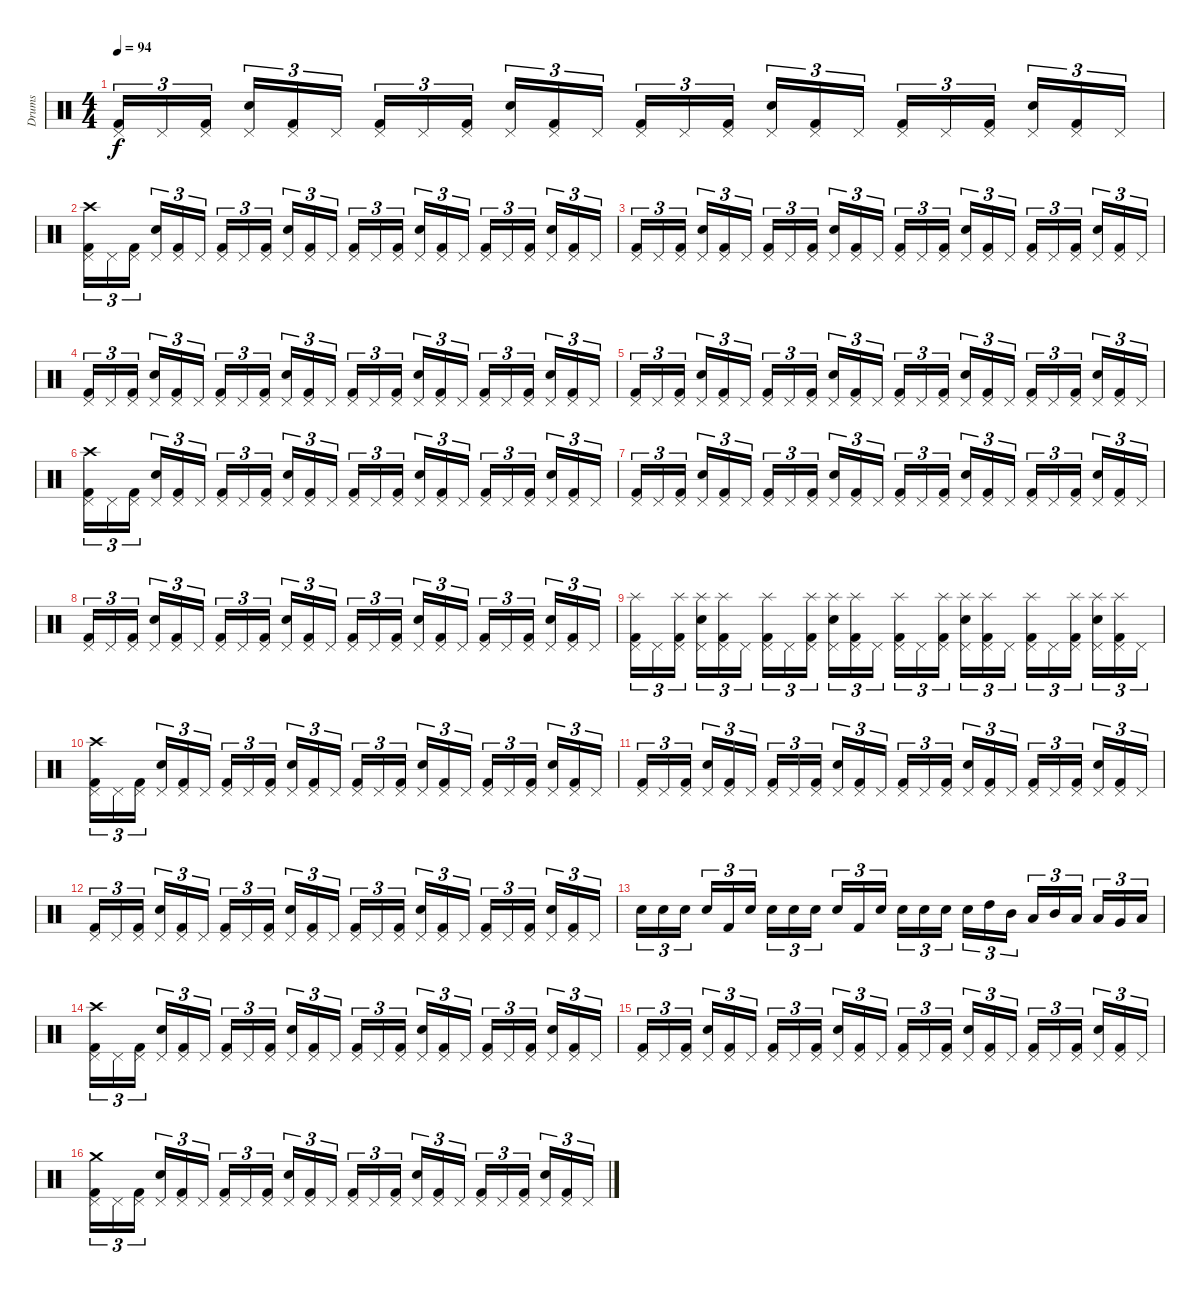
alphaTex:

\track ("Drums" "Drums") {instrument percussion}
\staff {score}
\articulation defaults
\ts (4 4)
\tempo 94
\clef neutral
\ks c
("Kick (hit) 2" "Pedal Hi-Hat (hit)").16{tu (3 2) dy f} "Pedal Hi-Hat (hit)".16{tu (3 2)} ("Kick (hit) 2" "Pedal Hi-Hat (hit)").16{tu (3 2)} ("Snare (hit) 2" "Pedal Hi-Hat (hit)").16{tu (3 2)} ("Kick (hit) 2" "Pedal Hi-Hat (hit)").16{tu (3 2)} "Pedal Hi-Hat (hit)".16{tu (3 2)} ("Kick (hit) 2" "Pedal Hi-Hat (hit)").16{tu (3 2)} "Pedal Hi-Hat (hit)".16{tu (3 2)} ("Kick (hit) 2" "Pedal Hi-Hat (hit)").16{tu (3 2)} ("Snare (hit) 2" "Pedal Hi-Hat (hit)").16{tu (3 2)} ("Kick (hit) 2" "Pedal Hi-Hat (hit)").16{tu (3 2)} "Pedal Hi-Hat (hit)".16{tu (3 2)} ("Kick (hit) 2" "Pedal Hi-Hat (hit)").16{tu (3 2)} "Pedal Hi-Hat (hit)".16{tu (3 2)} ("Kick (hit) 2" "Pedal Hi-Hat (hit)").16{tu (3 2)} ("Snare (hit) 2" "Pedal Hi-Hat (hit)").16{tu (3 2)} ("Kick (hit) 2" "Pedal Hi-Hat (hit)").16{tu (3 2)} "Pedal Hi-Hat (hit)".16{tu (3 2)} ("Kick (hit) 2" "Pedal Hi-Hat (hit)").16{tu (3 2)} "Pedal Hi-Hat (hit)".16{tu (3 2)} ("Kick (hit) 2" "Pedal Hi-Hat (hit)").16{tu (3 2)} ("Snare (hit) 2" "Pedal Hi-Hat (hit)").16{tu (3 2)} ("Kick (hit) 2" "Pedal Hi-Hat (hit)").16{tu (3 2)} "Pedal Hi-Hat (hit)".16{tu (3 2)} |
("Kick (hit) 2" "Pedal Hi-Hat (hit)" "Crash high (hit)").16{tu (3 2)} "Pedal Hi-Hat (hit)".16{tu (3 2)} ("Kick (hit) 2" "Pedal Hi-Hat (hit)").16{tu (3 2)} ("Snare (hit) 2" "Pedal Hi-Hat (hit)").16{tu (3 2)} ("Kick (hit) 2" "Pedal Hi-Hat (hit)").16{tu (3 2)} "Pedal Hi-Hat (hit)".16{tu (3 2)} ("Kick (hit) 2" "Pedal Hi-Hat (hit)").16{tu (3 2)} "Pedal Hi-Hat (hit)".16{tu (3 2)} ("Kick (hit) 2" "Pedal Hi-Hat (hit)").16{tu (3 2)} ("Snare (hit) 2" "Pedal Hi-Hat (hit)").16{tu (3 2)} ("Kick (hit) 2" "Pedal Hi-Hat (hit)").16{tu (3 2)} "Pedal Hi-Hat (hit)".16{tu (3 2)} ("Kick (hit) 2" "Pedal Hi-Hat (hit)").16{tu (3 2)} "Pedal Hi-Hat (hit)".16{tu (3 2)} ("Kick (hit) 2" "Pedal Hi-Hat (hit)").16{tu (3 2)} ("Snare (hit) 2" "Pedal Hi-Hat (hit)").16{tu (3 2)} ("Kick (hit) 2" "Pedal Hi-Hat (hit)").16{tu (3 2)} "Pedal Hi-Hat (hit)".16{tu (3 2)} ("Kick (hit) 2" "Pedal Hi-Hat (hit)").16{tu (3 2)} "Pedal Hi-Hat (hit)".16{tu (3 2)} ("Kick (hit) 2" "Pedal Hi-Hat (hit)").16{tu (3 2)} ("Snare (hit) 2" "Pedal Hi-Hat (hit)").16{tu (3 2)} ("Kick (hit) 2" "Pedal Hi-Hat (hit)").16{tu (3 2)} "Pedal Hi-Hat (hit)".16{tu (3 2)} |
("Kick (hit) 2" "Pedal Hi-Hat (hit)").16{tu (3 2)} "Pedal Hi-Hat (hit)".16{tu (3 2)} ("Kick (hit) 2" "Pedal Hi-Hat (hit)").16{tu (3 2)} ("Snare (hit) 2" "Pedal Hi-Hat (hit)").16{tu (3 2)} ("Kick (hit) 2" "Pedal Hi-Hat (hit)").16{tu (3 2)} "Pedal Hi-Hat (hit)".16{tu (3 2)} ("Kick (hit) 2" "Pedal Hi-Hat (hit)").16{tu (3 2)} "Pedal Hi-Hat (hit)".16{tu (3 2)} ("Kick (hit) 2" "Pedal Hi-Hat (hit)").16{tu (3 2)} ("Snare (hit) 2" "Pedal Hi-Hat (hit)").16{tu (3 2)} ("Kick (hit) 2" "Pedal Hi-Hat (hit)").16{tu (3 2)} "Pedal Hi-Hat (hit)".16{tu (3 2)} ("Kick (hit) 2" "Pedal Hi-Hat (hit)").16{tu (3 2)} "Pedal Hi-Hat (hit)".16{tu (3 2)} ("Kick (hit) 2" "Pedal Hi-Hat (hit)").16{tu (3 2)} ("Snare (hit) 2" "Pedal Hi-Hat (hit)").16{tu (3 2)} ("Kick (hit) 2" "Pedal Hi-Hat (hit)").16{tu (3 2)} "Pedal Hi-Hat (hit)".16{tu (3 2)} ("Kick (hit) 2" "Pedal Hi-Hat (hit)").16{tu (3 2)} "Pedal Hi-Hat (hit)".16{tu (3 2)} ("Kick (hit) 2" "Pedal Hi-Hat (hit)").16{tu (3 2)} ("Snare (hit) 2" "Pedal Hi-Hat (hit)").16{tu (3 2)} ("Kick (hit) 2" "Pedal Hi-Hat (hit)").16{tu (3 2)} "Pedal Hi-Hat (hit)".16{tu (3 2)} |
("Kick (hit) 2" "Pedal Hi-Hat (hit)").16{tu (3 2)} "Pedal Hi-Hat (hit)".16{tu (3 2)} ("Kick (hit) 2" "Pedal Hi-Hat (hit)").16{tu (3 2)} ("Snare (hit) 2" "Pedal Hi-Hat (hit)").16{tu (3 2)} ("Kick (hit) 2" "Pedal Hi-Hat (hit)").16{tu (3 2)} "Pedal Hi-Hat (hit)".16{tu (3 2)} ("Kick (hit) 2" "Pedal Hi-Hat (hit)").16{tu (3 2)} "Pedal Hi-Hat (hit)".16{tu (3 2)} ("Kick (hit) 2" "Pedal Hi-Hat (hit)").16{tu (3 2)} ("Snare (hit) 2" "Pedal Hi-Hat (hit)").16{tu (3 2)} ("Kick (hit) 2" "Pedal Hi-Hat (hit)").16{tu (3 2)} "Pedal Hi-Hat (hit)".16{tu (3 2)} ("Kick (hit) 2" "Pedal Hi-Hat (hit)").16{tu (3 2)} "Pedal Hi-Hat (hit)".16{tu (3 2)} ("Kick (hit) 2" "Pedal Hi-Hat (hit)").16{tu (3 2)} ("Snare (hit) 2" "Pedal Hi-Hat (hit)").16{tu (3 2)} ("Kick (hit) 2" "Pedal Hi-Hat (hit)").16{tu (3 2)} "Pedal Hi-Hat (hit)".16{tu (3 2)} ("Kick (hit) 2" "Pedal Hi-Hat (hit)").16{tu (3 2)} "Pedal Hi-Hat (hit)".16{tu (3 2)} ("Kick (hit) 2" "Pedal Hi-Hat (hit)").16{tu (3 2)} ("Snare (hit) 2" "Pedal Hi-Hat (hit)").16{tu (3 2)} ("Kick (hit) 2" "Pedal Hi-Hat (hit)").16{tu (3 2)} "Pedal Hi-Hat (hit)".16{tu (3 2)} |
("Kick (hit) 2" "Pedal Hi-Hat (hit)").16{tu (3 2)} "Pedal Hi-Hat (hit)".16{tu (3 2)} ("Kick (hit) 2" "Pedal Hi-Hat (hit)").16{tu (3 2)} ("Snare (hit) 2" "Pedal Hi-Hat (hit)").16{tu (3 2)} ("Kick (hit) 2" "Pedal Hi-Hat (hit)").16{tu (3 2)} "Pedal Hi-Hat (hit)".16{tu (3 2)} ("Kick (hit) 2" "Pedal Hi-Hat (hit)").16{tu (3 2)} "Pedal Hi-Hat (hit)".16{tu (3 2)} ("Kick (hit) 2" "Pedal Hi-Hat (hit)").16{tu (3 2)} ("Snare (hit) 2" "Pedal Hi-Hat (hit)").16{tu (3 2)} ("Kick (hit) 2" "Pedal Hi-Hat (hit)").16{tu (3 2)} "Pedal Hi-Hat (hit)".16{tu (3 2)} ("Kick (hit) 2" "Pedal Hi-Hat (hit)").16{tu (3 2)} "Pedal Hi-Hat (hit)".16{tu (3 2)} ("Kick (hit) 2" "Pedal Hi-Hat (hit)").16{tu (3 2)} ("Snare (hit) 2" "Pedal Hi-Hat (hit)").16{tu (3 2)} ("Kick (hit) 2" "Pedal Hi-Hat (hit)").16{tu (3 2)} "Pedal Hi-Hat (hit)".16{tu (3 2)} ("Kick (hit) 2" "Pedal Hi-Hat (hit)").16{tu (3 2)} "Pedal Hi-Hat (hit)".16{tu (3 2)} ("Kick (hit) 2" "Pedal Hi-Hat (hit)").16{tu (3 2)} ("Snare (hit) 2" "Pedal Hi-Hat (hit)").16{tu (3 2)} ("Kick (hit) 2" "Pedal Hi-Hat (hit)").16{tu (3 2)} "Pedal Hi-Hat (hit)".16{tu (3 2)} |
("Kick (hit) 2" "Pedal Hi-Hat (hit)" "Crash high (hit)").16{tu (3 2)} "Pedal Hi-Hat (hit)".16{tu (3 2)} ("Kick (hit) 2" "Pedal Hi-Hat (hit)").16{tu (3 2)} ("Snare (hit) 2" "Pedal Hi-Hat (hit)").16{tu (3 2)} ("Kick (hit) 2" "Pedal Hi-Hat (hit)").16{tu (3 2)} "Pedal Hi-Hat (hit)".16{tu (3 2)} ("Kick (hit) 2" "Pedal Hi-Hat (hit)").16{tu (3 2)} "Pedal Hi-Hat (hit)".16{tu (3 2)} ("Kick (hit) 2" "Pedal Hi-Hat (hit)").16{tu (3 2)} ("Snare (hit) 2" "Pedal Hi-Hat (hit)").16{tu (3 2)} ("Kick (hit) 2" "Pedal Hi-Hat (hit)").16{tu (3 2)} "Pedal Hi-Hat (hit)".16{tu (3 2)} ("Kick (hit) 2" "Pedal Hi-Hat (hit)").16{tu (3 2)} "Pedal Hi-Hat (hit)".16{tu (3 2)} ("Kick (hit) 2" "Pedal Hi-Hat (hit)").16{tu (3 2)} ("Snare (hit) 2" "Pedal Hi-Hat (hit)").16{tu (3 2)} ("Kick (hit) 2" "Pedal Hi-Hat (hit)").16{tu (3 2)} "Pedal Hi-Hat (hit)".16{tu (3 2)} ("Kick (hit) 2" "Pedal Hi-Hat (hit)").16{tu (3 2)} "Pedal Hi-Hat (hit)".16{tu (3 2)} ("Kick (hit) 2" "Pedal Hi-Hat (hit)").16{tu (3 2)} ("Snare (hit) 2" "Pedal Hi-Hat (hit)").16{tu (3 2)} ("Kick (hit) 2" "Pedal Hi-Hat (hit)").16{tu (3 2)} "Pedal Hi-Hat (hit)".16{tu (3 2)} |
("Kick (hit) 2" "Pedal Hi-Hat (hit)").16{tu (3 2)} "Pedal Hi-Hat (hit)".16{tu (3 2)} ("Kick (hit) 2" "Pedal Hi-Hat (hit)").16{tu (3 2)} ("Snare (hit) 2" "Pedal Hi-Hat (hit)").16{tu (3 2)} ("Kick (hit) 2" "Pedal Hi-Hat (hit)").16{tu (3 2)} "Pedal Hi-Hat (hit)".16{tu (3 2)} ("Kick (hit) 2" "Pedal Hi-Hat (hit)").16{tu (3 2)} "Pedal Hi-Hat (hit)".16{tu (3 2)} ("Kick (hit) 2" "Pedal Hi-Hat (hit)").16{tu (3 2)} ("Snare (hit) 2" "Pedal Hi-Hat (hit)").16{tu (3 2)} ("Kick (hit) 2" "Pedal Hi-Hat (hit)").16{tu (3 2)} "Pedal Hi-Hat (hit)".16{tu (3 2)} ("Kick (hit) 2" "Pedal Hi-Hat (hit)").16{tu (3 2)} "Pedal Hi-Hat (hit)".16{tu (3 2)} ("Kick (hit) 2" "Pedal Hi-Hat (hit)").16{tu (3 2)} ("Snare (hit) 2" "Pedal Hi-Hat (hit)").16{tu (3 2)} ("Kick (hit) 2" "Pedal Hi-Hat (hit)").16{tu (3 2)} "Pedal Hi-Hat (hit)".16{tu (3 2)} ("Kick (hit) 2" "Pedal Hi-Hat (hit)").16{tu (3 2)} "Pedal Hi-Hat (hit)".16{tu (3 2)} ("Kick (hit) 2" "Pedal Hi-Hat (hit)").16{tu (3 2)} ("Snare (hit) 2" "Pedal Hi-Hat (hit)").16{tu (3 2)} ("Kick (hit) 2" "Pedal Hi-Hat (hit)").16{tu (3 2)} "Pedal Hi-Hat (hit)".16{tu (3 2)} |
("Kick (hit) 2" "Pedal Hi-Hat (hit)").16{tu (3 2)} "Pedal Hi-Hat (hit)".16{tu (3 2)} ("Kick (hit) 2" "Pedal Hi-Hat (hit)").16{tu (3 2)} ("Snare (hit) 2" "Pedal Hi-Hat (hit)").16{tu (3 2)} ("Kick (hit) 2" "Pedal Hi-Hat (hit)").16{tu (3 2)} "Pedal Hi-Hat (hit)".16{tu (3 2)} ("Kick (hit) 2" "Pedal Hi-Hat (hit)").16{tu (3 2)} "Pedal Hi-Hat (hit)".16{tu (3 2)} ("Kick (hit) 2" "Pedal Hi-Hat (hit)").16{tu (3 2)} ("Snare (hit) 2" "Pedal Hi-Hat (hit)").16{tu (3 2)} ("Kick (hit) 2" "Pedal Hi-Hat (hit)").16{tu (3 2)} "Pedal Hi-Hat (hit)".16{tu (3 2)} ("Kick (hit) 2" "Pedal Hi-Hat (hit)").16{tu (3 2)} "Pedal Hi-Hat (hit)".16{tu (3 2)} ("Kick (hit) 2" "Pedal Hi-Hat (hit)").16{tu (3 2)} ("Snare (hit) 2" "Pedal Hi-Hat (hit)").16{tu (3 2)} ("Kick (hit) 2" "Pedal Hi-Hat (hit)").16{tu (3 2)} "Pedal Hi-Hat (hit)".16{tu (3 2)} ("Kick (hit) 2" "Pedal Hi-Hat (hit)").16{tu (3 2)} "Pedal Hi-Hat (hit)".16{tu (3 2)} ("Kick (hit) 2" "Pedal Hi-Hat (hit)").16{tu (3 2)} ("Snare (hit) 2" "Pedal Hi-Hat (hit)").16{tu (3 2)} ("Kick (hit) 2" "Pedal Hi-Hat (hit)").16{tu (3 2)} "Pedal Hi-Hat (hit)".16{tu (3 2)} |
("Kick (hit) 2" "Pedal Hi-Hat (hit)" "Splash (hit)").16{tu (3 2)} "Pedal Hi-Hat (hit)".16{tu (3 2)} ("Kick (hit) 2" "Pedal Hi-Hat (hit)" "Splash (hit)").16{tu (3 2)} ("Snare (hit) 2" "Pedal Hi-Hat (hit)" "Splash (hit)").16{tu (3 2)} ("Kick (hit) 2" "Pedal Hi-Hat (hit)" "Splash (hit)").16{tu (3 2)} "Pedal Hi-Hat (hit)".16{tu (3 2)} ("Kick (hit) 2" "Pedal Hi-Hat (hit)" "Splash (hit)").16{tu (3 2)} "Pedal Hi-Hat (hit)".16{tu (3 2)} ("Kick (hit) 2" "Pedal Hi-Hat (hit)" "Splash (hit)").16{tu (3 2)} ("Snare (hit) 2" "Pedal Hi-Hat (hit)" "Splash (hit)").16{tu (3 2)} ("Kick (hit) 2" "Pedal Hi-Hat (hit)" "Splash (hit)").16{tu (3 2)} "Pedal Hi-Hat (hit)".16{tu (3 2)} ("Kick (hit) 2" "Pedal Hi-Hat (hit)" "Splash (hit)").16{tu (3 2)} "Pedal Hi-Hat (hit)".16{tu (3 2)} ("Kick (hit) 2" "Pedal Hi-Hat (hit)" "Splash (hit)").16{tu (3 2)} ("Snare (hit) 2" "Pedal Hi-Hat (hit)" "Splash (hit)").16{tu (3 2)} ("Kick (hit) 2" "Pedal Hi-Hat (hit)" "Splash (hit)").16{tu (3 2)} "Pedal Hi-Hat (hit)".16{tu (3 2)} ("Kick (hit) 2" "Pedal Hi-Hat (hit)" "Splash (hit)").16{tu (3 2)} "Pedal Hi-Hat (hit)".16{tu (3 2)} ("Kick (hit) 2" "Pedal Hi-Hat (hit)" "Splash (hit)").16{tu (3 2)} ("Snare (hit) 2" "Pedal Hi-Hat (hit)" "Splash (hit)").16{tu (3 2)} ("Kick (hit) 2" "Pedal Hi-Hat (hit)" "Splash (hit)").16{tu (3 2)} "Pedal Hi-Hat (hit)".16{tu (3 2)} |
("Kick (hit) 2" "Pedal Hi-Hat (hit)" "Crash high (hit)").16{tu (3 2)} "Pedal Hi-Hat (hit)".16{tu (3 2)} ("Kick (hit) 2" "Pedal Hi-Hat (hit)").16{tu (3 2)} ("Snare (hit) 2" "Pedal Hi-Hat (hit)").16{tu (3 2)} ("Kick (hit) 2" "Pedal Hi-Hat (hit)").16{tu (3 2)} "Pedal Hi-Hat (hit)".16{tu (3 2)} ("Kick (hit) 2" "Pedal Hi-Hat (hit)").16{tu (3 2)} "Pedal Hi-Hat (hit)".16{tu (3 2)} ("Kick (hit) 2" "Pedal Hi-Hat (hit)").16{tu (3 2)} ("Snare (hit) 2" "Pedal Hi-Hat (hit)").16{tu (3 2)} ("Kick (hit) 2" "Pedal Hi-Hat (hit)").16{tu (3 2)} "Pedal Hi-Hat (hit)".16{tu (3 2)} ("Kick (hit) 2" "Pedal Hi-Hat (hit)").16{tu (3 2)} "Pedal Hi-Hat (hit)".16{tu (3 2)} ("Kick (hit) 2" "Pedal Hi-Hat (hit)").16{tu (3 2)} ("Snare (hit) 2" "Pedal Hi-Hat (hit)").16{tu (3 2)} ("Kick (hit) 2" "Pedal Hi-Hat (hit)").16{tu (3 2)} "Pedal Hi-Hat (hit)".16{tu (3 2)} ("Kick (hit) 2" "Pedal Hi-Hat (hit)").16{tu (3 2)} "Pedal Hi-Hat (hit)".16{tu (3 2)} ("Kick (hit) 2" "Pedal Hi-Hat (hit)").16{tu (3 2)} ("Snare (hit) 2" "Pedal Hi-Hat (hit)").16{tu (3 2)} ("Kick (hit) 2" "Pedal Hi-Hat (hit)").16{tu (3 2)} "Pedal Hi-Hat (hit)".16{tu (3 2)} |
("Kick (hit) 2" "Pedal Hi-Hat (hit)").16{tu (3 2)} "Pedal Hi-Hat (hit)".16{tu (3 2)} ("Kick (hit) 2" "Pedal Hi-Hat (hit)").16{tu (3 2)} ("Snare (hit) 2" "Pedal Hi-Hat (hit)").16{tu (3 2)} ("Kick (hit) 2" "Pedal Hi-Hat (hit)").16{tu (3 2)} "Pedal Hi-Hat (hit)".16{tu (3 2)} ("Kick (hit) 2" "Pedal Hi-Hat (hit)").16{tu (3 2)} "Pedal Hi-Hat (hit)".16{tu (3 2)} ("Kick (hit) 2" "Pedal Hi-Hat (hit)").16{tu (3 2)} ("Snare (hit) 2" "Pedal Hi-Hat (hit)").16{tu (3 2)} ("Kick (hit) 2" "Pedal Hi-Hat (hit)").16{tu (3 2)} "Pedal Hi-Hat (hit)".16{tu (3 2)} ("Kick (hit) 2" "Pedal Hi-Hat (hit)").16{tu (3 2)} "Pedal Hi-Hat (hit)".16{tu (3 2)} ("Kick (hit) 2" "Pedal Hi-Hat (hit)").16{tu (3 2)} ("Snare (hit) 2" "Pedal Hi-Hat (hit)").16{tu (3 2)} ("Kick (hit) 2" "Pedal Hi-Hat (hit)").16{tu (3 2)} "Pedal Hi-Hat (hit)".16{tu (3 2)} ("Kick (hit) 2" "Pedal Hi-Hat (hit)").16{tu (3 2)} "Pedal Hi-Hat (hit)".16{tu (3 2)} ("Kick (hit) 2" "Pedal Hi-Hat (hit)").16{tu (3 2)} ("Snare (hit) 2" "Pedal Hi-Hat (hit)").16{tu (3 2)} ("Kick (hit) 2" "Pedal Hi-Hat (hit)").16{tu (3 2)} "Pedal Hi-Hat (hit)".16{tu (3 2)} |
("Kick (hit) 2" "Pedal Hi-Hat (hit)").16{tu (3 2)} "Pedal Hi-Hat (hit)".16{tu (3 2)} ("Kick (hit) 2" "Pedal Hi-Hat (hit)").16{tu (3 2)} ("Snare (hit) 2" "Pedal Hi-Hat (hit)").16{tu (3 2)} ("Kick (hit) 2" "Pedal Hi-Hat (hit)").16{tu (3 2)} "Pedal Hi-Hat (hit)".16{tu (3 2)} ("Kick (hit) 2" "Pedal Hi-Hat (hit)").16{tu (3 2)} "Pedal Hi-Hat (hit)".16{tu (3 2)} ("Kick (hit) 2" "Pedal Hi-Hat (hit)").16{tu (3 2)} ("Snare (hit) 2" "Pedal Hi-Hat (hit)").16{tu (3 2)} ("Kick (hit) 2" "Pedal Hi-Hat (hit)").16{tu (3 2)} "Pedal Hi-Hat (hit)".16{tu (3 2)} ("Kick (hit) 2" "Pedal Hi-Hat (hit)").16{tu (3 2)} "Pedal Hi-Hat (hit)".16{tu (3 2)} ("Kick (hit) 2" "Pedal Hi-Hat (hit)").16{tu (3 2)} ("Snare (hit) 2" "Pedal Hi-Hat (hit)").16{tu (3 2)} ("Kick (hit) 2" "Pedal Hi-Hat (hit)").16{tu (3 2)} "Pedal Hi-Hat (hit)".16{tu (3 2)} ("Kick (hit) 2" "Pedal Hi-Hat (hit)").16{tu (3 2)} "Pedal Hi-Hat (hit)".16{tu (3 2)} ("Kick (hit) 2" "Pedal Hi-Hat (hit)").16{tu (3 2)} ("Snare (hit) 2" "Pedal Hi-Hat (hit)").16{tu (3 2)} ("Kick (hit) 2" "Pedal Hi-Hat (hit)").16{tu (3 2)} "Pedal Hi-Hat (hit)".16{tu (3 2)} |
"Snare (hit) 2".16{tu (3 2)} "Snare (hit) 2".16{tu (3 2)} "Snare (hit) 2".16{tu (3 2)} "Snare (hit) 2".16{tu (3 2)} "Kick (hit) 2".16{tu (3 2)} "Snare (hit) 2".16{tu (3 2)} "Snare (hit) 2".16{tu (3 2)} "Snare (hit) 2".16{tu (3 2)} "Snare (hit) 2".16{tu (3 2)} "Snare (hit) 2".16{tu (3 2)} "Kick (hit) 2".16{tu (3 2)} "Snare (hit) 2".16{tu (3 2)} "Snare (hit) 2".16{tu (3 2)} "Snare (hit) 2".16{tu (3 2)} "Snare (hit) 2".16{tu (3 2)} "Snare (hit) 2".16{tu (3 2)} "High Tom (hit)".16{tu (3 2)} "Mid Tom (hit)".16{tu (3 2)} "Low Tom (hit)".16{tu (3 2)} "Mid Tom (hit)".16{tu (3 2)} "Low Tom (hit)".16{tu (3 2)} "Low Tom (hit)".16{tu (3 2)} "Very Low Tom (hit)".16{tu (3 2)} "Low Floor Tom (hit)".16{tu (3 2)} |
("Kick (hit) 2" "Pedal Hi-Hat (hit)" "Crash high (hit)").16{tu (3 2)} "Pedal Hi-Hat (hit)".16{tu (3 2)} ("Kick (hit) 2" "Pedal Hi-Hat (hit)").16{tu (3 2)} ("Snare (hit) 2" "Pedal Hi-Hat (hit)").16{tu (3 2)} ("Kick (hit) 2" "Pedal Hi-Hat (hit)").16{tu (3 2)} "Pedal Hi-Hat (hit)".16{tu (3 2)} ("Kick (hit) 2" "Pedal Hi-Hat (hit)").16{tu (3 2)} "Pedal Hi-Hat (hit)".16{tu (3 2)} ("Kick (hit) 2" "Pedal Hi-Hat (hit)").16{tu (3 2)} ("Snare (hit) 2" "Pedal Hi-Hat (hit)").16{tu (3 2)} ("Kick (hit) 2" "Pedal Hi-Hat (hit)").16{tu (3 2)} "Pedal Hi-Hat (hit)".16{tu (3 2)} ("Kick (hit) 2" "Pedal Hi-Hat (hit)").16{tu (3 2)} "Pedal Hi-Hat (hit)".16{tu (3 2)} ("Kick (hit) 2" "Pedal Hi-Hat (hit)").16{tu (3 2)} ("Snare (hit) 2" "Pedal Hi-Hat (hit)").16{tu (3 2)} ("Kick (hit) 2" "Pedal Hi-Hat (hit)").16{tu (3 2)} "Pedal Hi-Hat (hit)".16{tu (3 2)} ("Kick (hit) 2" "Pedal Hi-Hat (hit)").16{tu (3 2)} "Pedal Hi-Hat (hit)".16{tu (3 2)} ("Kick (hit) 2" "Pedal Hi-Hat (hit)").16{tu (3 2)} ("Snare (hit) 2" "Pedal Hi-Hat (hit)").16{tu (3 2)} ("Kick (hit) 2" "Pedal Hi-Hat (hit)").16{tu (3 2)} "Pedal Hi-Hat (hit)".16{tu (3 2)} |
("Kick (hit) 2" "Pedal Hi-Hat (hit)").16{tu (3 2)} "Pedal Hi-Hat (hit)".16{tu (3 2)} ("Kick (hit) 2" "Pedal Hi-Hat (hit)").16{tu (3 2)} ("Snare (hit) 2" "Pedal Hi-Hat (hit)").16{tu (3 2)} ("Kick (hit) 2" "Pedal Hi-Hat (hit)").16{tu (3 2)} "Pedal Hi-Hat (hit)".16{tu (3 2)} ("Kick (hit) 2" "Pedal Hi-Hat (hit)").16{tu (3 2)} "Pedal Hi-Hat (hit)".16{tu (3 2)} ("Kick (hit) 2" "Pedal Hi-Hat (hit)").16{tu (3 2)} ("Snare (hit) 2" "Pedal Hi-Hat (hit)").16{tu (3 2)} ("Kick (hit) 2" "Pedal Hi-Hat (hit)").16{tu (3 2)} "Pedal Hi-Hat (hit)".16{tu (3 2)} ("Kick (hit) 2" "Pedal Hi-Hat (hit)").16{tu (3 2)} "Pedal Hi-Hat (hit)".16{tu (3 2)} ("Kick (hit) 2" "Pedal Hi-Hat (hit)").16{tu (3 2)} ("Snare (hit) 2" "Pedal Hi-Hat (hit)").16{tu (3 2)} ("Kick (hit) 2" "Pedal Hi-Hat (hit)").16{tu (3 2)} "Pedal Hi-Hat (hit)".16{tu (3 2)} ("Kick (hit) 2" "Pedal Hi-Hat (hit)").16{tu (3 2)} "Pedal Hi-Hat (hit)".16{tu (3 2)} ("Kick (hit) 2" "Pedal Hi-Hat (hit)").16{tu (3 2)} ("Snare (hit) 2" "Pedal Hi-Hat (hit)").16{tu (3 2)} ("Kick (hit) 2" "Pedal Hi-Hat (hit)").16{tu (3 2)} "Pedal Hi-Hat (hit)".16{tu (3 2)} |
("Kick (hit) 2" "Pedal Hi-Hat (hit)" "Crash medium (hit)").16{tu (3 2)} "Pedal Hi-Hat (hit)".16{tu (3 2)} ("Kick (hit) 2" "Pedal Hi-Hat (hit)").16{tu (3 2)} ("Snare (hit) 2" "Pedal Hi-Hat (hit)").16{tu (3 2)} ("Kick (hit) 2" "Pedal Hi-Hat (hit)").16{tu (3 2)} "Pedal Hi-Hat (hit)".16{tu (3 2)} ("Kick (hit) 2" "Pedal Hi-Hat (hit)").16{tu (3 2)} "Pedal Hi-Hat (hit)".16{tu (3 2)} ("Kick (hit) 2" "Pedal Hi-Hat (hit)").16{tu (3 2)} ("Snare (hit) 2" "Pedal Hi-Hat (hit)").16{tu (3 2)} ("Kick (hit) 2" "Pedal Hi-Hat (hit)").16{tu (3 2)} "Pedal Hi-Hat (hit)".16{tu (3 2)} ("Kick (hit) 2" "Pedal Hi-Hat (hit)").16{tu (3 2)} "Pedal Hi-Hat (hit)".16{tu (3 2)} ("Kick (hit) 2" "Pedal Hi-Hat (hit)").16{tu (3 2)} ("Snare (hit) 2" "Pedal Hi-Hat (hit)").16{tu (3 2)} ("Kick (hit) 2" "Pedal Hi-Hat (hit)").16{tu (3 2)} "Pedal Hi-Hat (hit)".16{tu (3 2)} ("Kick (hit) 2" "Pedal Hi-Hat (hit)").16{tu (3 2)} "Pedal Hi-Hat (hit)".16{tu (3 2)} ("Kick (hit) 2" "Pedal Hi-Hat (hit)").16{tu (3 2)} ("Snare (hit) 2" "Pedal Hi-Hat (hit)").16{tu (3 2)} ("Kick (hit) 2" "Pedal Hi-Hat (hit)").16{tu (3 2)} "Pedal Hi-Hat (hit)".16{tu (3 2)}
